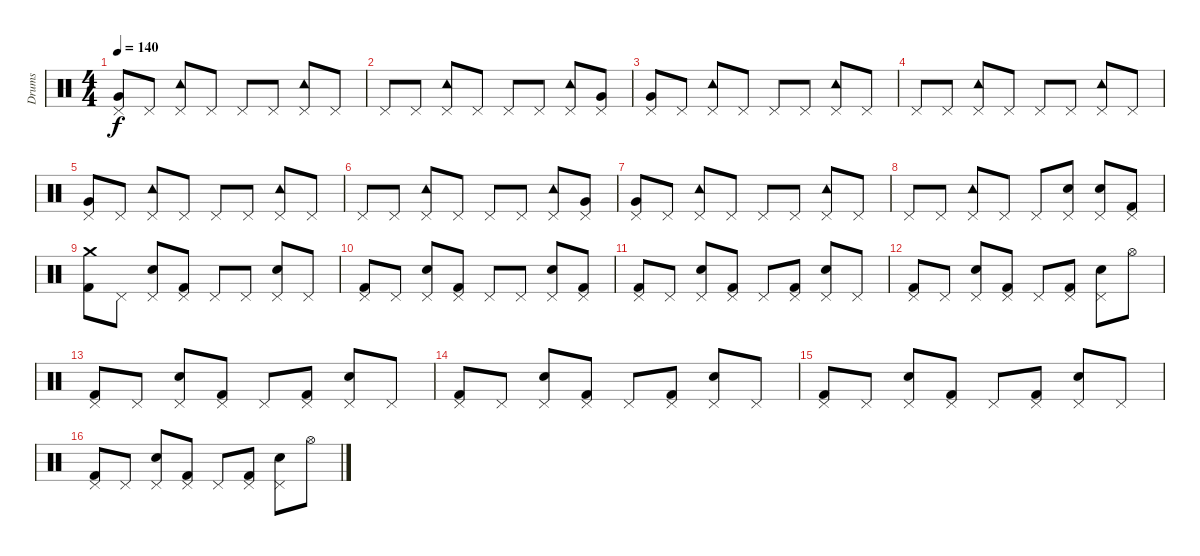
\track ("Drums" "Drums") {instrument percussion}
\staff {score}
\articulation defaults
\ts (4 4)
\tempo 140
\clef neutral
\ks c
("Pedal Hi-Hat (hit)" "Very Low Tom (hit)").8{dy f} "Pedal Hi-Hat (hit)".8 ("Pedal Hi-Hat (hit)" "Tambourine (hit)").8 "Pedal Hi-Hat (hit)".8 "Pedal Hi-Hat (hit)".8 "Pedal Hi-Hat (hit)".8 ("Pedal Hi-Hat (hit)" "Tambourine (hit)").8 "Pedal Hi-Hat (hit)".8 |
"Pedal Hi-Hat (hit)".8 "Pedal Hi-Hat (hit)".8 ("Pedal Hi-Hat (hit)" "Tambourine (hit)").8 "Pedal Hi-Hat (hit)".8 "Pedal Hi-Hat (hit)".8 "Pedal Hi-Hat (hit)".8 ("Pedal Hi-Hat (hit)" "Tambourine (hit)").8 ("Pedal Hi-Hat (hit)" "Very Low Tom (hit)").8 |
("Pedal Hi-Hat (hit)" "Very Low Tom (hit)").8 "Pedal Hi-Hat (hit)".8 ("Pedal Hi-Hat (hit)" "Tambourine (hit)").8 "Pedal Hi-Hat (hit)".8 "Pedal Hi-Hat (hit)".8 "Pedal Hi-Hat (hit)".8 ("Pedal Hi-Hat (hit)" "Tambourine (hit)").8 "Pedal Hi-Hat (hit)".8 |
"Pedal Hi-Hat (hit)".8 "Pedal Hi-Hat (hit)".8 ("Pedal Hi-Hat (hit)" "Tambourine (hit)").8 "Pedal Hi-Hat (hit)".8 "Pedal Hi-Hat (hit)".8 "Pedal Hi-Hat (hit)".8 ("Pedal Hi-Hat (hit)" "Tambourine (hit)").8 "Pedal Hi-Hat (hit)".8 |
("Pedal Hi-Hat (hit)" "Very Low Tom (hit)").8 "Pedal Hi-Hat (hit)".8 ("Pedal Hi-Hat (hit)" "Tambourine (hit)").8 "Pedal Hi-Hat (hit)".8 "Pedal Hi-Hat (hit)".8 "Pedal Hi-Hat (hit)".8 ("Pedal Hi-Hat (hit)" "Tambourine (hit)").8 "Pedal Hi-Hat (hit)".8 |
"Pedal Hi-Hat (hit)".8 "Pedal Hi-Hat (hit)".8 ("Pedal Hi-Hat (hit)" "Tambourine (hit)").8 "Pedal Hi-Hat (hit)".8 "Pedal Hi-Hat (hit)".8 "Pedal Hi-Hat (hit)".8 ("Pedal Hi-Hat (hit)" "Tambourine (hit)").8 ("Pedal Hi-Hat (hit)" "Very Low Tom (hit)").8 |
("Pedal Hi-Hat (hit)" "Very Low Tom (hit)").8 "Pedal Hi-Hat (hit)".8 ("Pedal Hi-Hat (hit)" "Tambourine (hit)").8 "Pedal Hi-Hat (hit)".8 "Pedal Hi-Hat (hit)".8 "Pedal Hi-Hat (hit)".8 ("Pedal Hi-Hat (hit)" "Tambourine (hit)").8 "Pedal Hi-Hat (hit)".8 |
"Pedal Hi-Hat (hit)".8 "Pedal Hi-Hat (hit)".8 ("Pedal Hi-Hat (hit)" "Tambourine (hit)").8 "Pedal Hi-Hat (hit)".8 "Pedal Hi-Hat (hit)".8 ("Pedal Hi-Hat (hit)" "Electric Snare (hit)").8 ("Pedal Hi-Hat (hit)" "Electric Snare (hit)").8 ("Pedal Hi-Hat (hit)" "Kick (hit) 2").8 |
("Crash medium (hit)" "Kick (hit) 2").8 "Pedal Hi-Hat (hit)".8 ("Pedal Hi-Hat (hit)" "Electric Snare (hit)").8 ("Pedal Hi-Hat (hit)" "Kick (hit) 2").8 "Pedal Hi-Hat (hit)".8 "Pedal Hi-Hat (hit)".8 ("Pedal Hi-Hat (hit)" "Electric Snare (hit)").8 "Pedal Hi-Hat (hit)".8 |
("Pedal Hi-Hat (hit)" "Kick (hit) 2").8 "Pedal Hi-Hat (hit)".8 ("Pedal Hi-Hat (hit)" "Electric Snare (hit)").8 ("Pedal Hi-Hat (hit)" "Kick (hit) 2").8 "Pedal Hi-Hat (hit)".8 "Pedal Hi-Hat (hit)".8 ("Pedal Hi-Hat (hit)" "Electric Snare (hit)").8 ("Pedal Hi-Hat (hit)" "Kick (hit) 2").8 |
("Pedal Hi-Hat (hit)" "Kick (hit) 2").8 "Pedal Hi-Hat (hit)".8 ("Pedal Hi-Hat (hit)" "Electric Snare (hit)").8 ("Pedal Hi-Hat (hit)" "Kick (hit) 2").8 "Pedal Hi-Hat (hit)".8 ("Pedal Hi-Hat (hit)" "Kick (hit) 2").8 ("Pedal Hi-Hat (hit)" "Electric Snare (hit)").8 "Pedal Hi-Hat (hit)".8 |
("Pedal Hi-Hat (hit)" "Kick (hit) 2").8 "Pedal Hi-Hat (hit)".8 ("Pedal Hi-Hat (hit)" "Electric Snare (hit)").8 ("Pedal Hi-Hat (hit)" "Kick (hit) 2").8 "Pedal Hi-Hat (hit)".8 ("Pedal Hi-Hat (hit)" "Kick (hit) 2").8 ("Pedal Hi-Hat (hit)" "Electric Snare (hit)").8 "Hi-Hat (open)".8 |
("Pedal Hi-Hat (hit)" "Kick (hit) 2").8 "Pedal Hi-Hat (hit)".8 ("Pedal Hi-Hat (hit)" "Electric Snare (hit)").8 ("Pedal Hi-Hat (hit)" "Kick (hit) 2").8 "Pedal Hi-Hat (hit)".8 ("Pedal Hi-Hat (hit)" "Kick (hit) 2").8 ("Pedal Hi-Hat (hit)" "Electric Snare (hit)").8 "Pedal Hi-Hat (hit)".8 |
("Pedal Hi-Hat (hit)" "Kick (hit) 2").8 "Pedal Hi-Hat (hit)".8 ("Pedal Hi-Hat (hit)" "Electric Snare (hit)").8 ("Pedal Hi-Hat (hit)" "Kick (hit) 2").8 "Pedal Hi-Hat (hit)".8 ("Pedal Hi-Hat (hit)" "Kick (hit) 2").8 ("Pedal Hi-Hat (hit)" "Electric Snare (hit)").8 "Pedal Hi-Hat (hit)".8 |
("Pedal Hi-Hat (hit)" "Kick (hit) 2").8 "Pedal Hi-Hat (hit)".8 ("Pedal Hi-Hat (hit)" "Electric Snare (hit)").8 ("Pedal Hi-Hat (hit)" "Kick (hit) 2").8 "Pedal Hi-Hat (hit)".8 ("Pedal Hi-Hat (hit)" "Kick (hit) 2").8 ("Pedal Hi-Hat (hit)" "Electric Snare (hit)").8 "Pedal Hi-Hat (hit)".8 |
("Pedal Hi-Hat (hit)" "Kick (hit) 2").8 "Pedal Hi-Hat (hit)".8 ("Pedal Hi-Hat (hit)" "Electric Snare (hit)").8 ("Pedal Hi-Hat (hit)" "Kick (hit) 2").8 "Pedal Hi-Hat (hit)".8 ("Pedal Hi-Hat (hit)" "Kick (hit) 2").8 ("Pedal Hi-Hat (hit)" "Electric Snare (hit)").8 "Hi-Hat (open)".8
